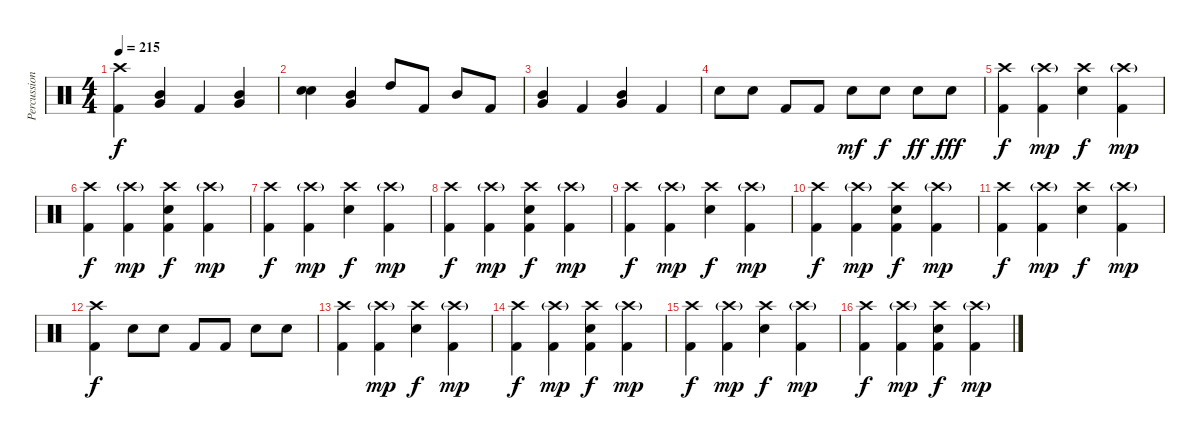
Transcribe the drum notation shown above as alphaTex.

\track ("Percussion" "Percussion") {instrument percussion}
\staff {score}
\articulation defaults
\ts (4 4)
\tempo 215
\clef neutral
\ks c
("Crash high (hit)" "Kick (hit) 2").4{dy f} ("Very Low Tom (hit)" "Mid Tom (hit)").4 "Kick (hit) 2".4 ("Very Low Tom (hit)" "Mid Tom (hit)").4 |
("Electric Snare (hit)" "Electric Snare (hit)").4{bd 60} ("Very Low Tom (hit)" "Mid Tom (hit)").4 "High Tom (hit)".8 "Kick (hit) 2".8 "Mid Tom (hit)".8 "Kick (hit) 2".8 |
("Very Low Tom (hit)" "Mid Tom (hit)").4 "Kick (hit) 2".4 ("Very Low Tom (hit)" "Mid Tom (hit)").4 "Kick (hit) 2".4 |
"Electric Snare (hit)".8 "Electric Snare (hit)".8 "Kick (hit) 2".8 "Kick (hit) 2".8 "Electric Snare (hit)".8{dy mf} "Electric Snare (hit)".8{dy f} "Electric Snare (hit)".8{dy ff} "Electric Snare (hit)".8{dy fff} |
("Crash high (hit)" "Kick (hit) 2").4{dy f} ("Crash high (hit)"{g} "Kick (hit) 2").4{dy mp} ("Crash high (hit)" "Electric Snare (hit)").4{dy f} ("Crash high (hit)"{g} "Kick (hit) 2").4{dy mp} |
("Crash high (hit)" "Kick (hit) 2").4{dy f} ("Crash high (hit)"{g} "Kick (hit) 2").4{dy mp} ("Crash high (hit)" "Electric Snare (hit)" "Kick (hit) 2").4{dy f} ("Crash high (hit)"{g} "Kick (hit) 2").4{dy mp} |
("Crash high (hit)" "Kick (hit) 2").4{dy f} ("Crash high (hit)"{g} "Kick (hit) 2").4{dy mp} ("Crash high (hit)" "Electric Snare (hit)").4{dy f} ("Crash high (hit)"{g} "Kick (hit) 2").4{dy mp} |
("Crash high (hit)" "Kick (hit) 2").4{dy f} ("Crash high (hit)"{g} "Kick (hit) 2").4{dy mp} ("Crash high (hit)" "Electric Snare (hit)" "Kick (hit) 2").4{dy f} ("Crash high (hit)"{g} "Kick (hit) 2").4{dy mp} |
("Crash high (hit)" "Kick (hit) 2").4{dy f} ("Crash high (hit)"{g} "Kick (hit) 2").4{dy mp} ("Crash high (hit)" "Electric Snare (hit)").4{dy f} ("Crash high (hit)"{g} "Kick (hit) 2").4{dy mp} |
("Crash high (hit)" "Kick (hit) 2").4{dy f} ("Crash high (hit)"{g} "Kick (hit) 2").4{dy mp} ("Crash high (hit)" "Electric Snare (hit)" "Kick (hit) 2").4{dy f} ("Crash high (hit)"{g} "Kick (hit) 2").4{dy mp} |
("Crash high (hit)" "Kick (hit) 2").4{dy f} ("Crash high (hit)"{g} "Kick (hit) 2").4{dy mp} ("Crash high (hit)" "Electric Snare (hit)").4{dy f} ("Crash high (hit)"{g} "Kick (hit) 2").4{dy mp} |
("Crash high (hit)" "Kick (hit) 2").4{dy f} "Electric Snare (hit)".8 "Electric Snare (hit)".8 "Kick (hit) 2".8 "Kick (hit) 2".8 "Electric Snare (hit)".8 "Electric Snare (hit)".8 |
("Crash high (hit)" "Kick (hit) 2").4 ("Crash high (hit)"{g} "Kick (hit) 2").4{dy mp} ("Crash high (hit)" "Electric Snare (hit)").4{dy f} ("Crash high (hit)"{g} "Kick (hit) 2").4{dy mp} |
("Crash high (hit)" "Kick (hit) 2").4{dy f} ("Crash high (hit)"{g} "Kick (hit) 2").4{dy mp} ("Crash high (hit)" "Electric Snare (hit)" "Kick (hit) 2").4{dy f} ("Crash high (hit)"{g} "Kick (hit) 2").4{dy mp} |
("Crash high (hit)" "Kick (hit) 2").4{dy f} ("Crash high (hit)"{g} "Kick (hit) 2").4{dy mp} ("Crash high (hit)" "Electric Snare (hit)").4{dy f} ("Crash high (hit)"{g} "Kick (hit) 2").4{dy mp} |
("Crash high (hit)" "Kick (hit) 2").4{dy f} ("Crash high (hit)"{g} "Kick (hit) 2").4{dy mp} ("Crash high (hit)" "Electric Snare (hit)" "Kick (hit) 2").4{dy f} ("Crash high (hit)"{g} "Kick (hit) 2").4{dy mp}
